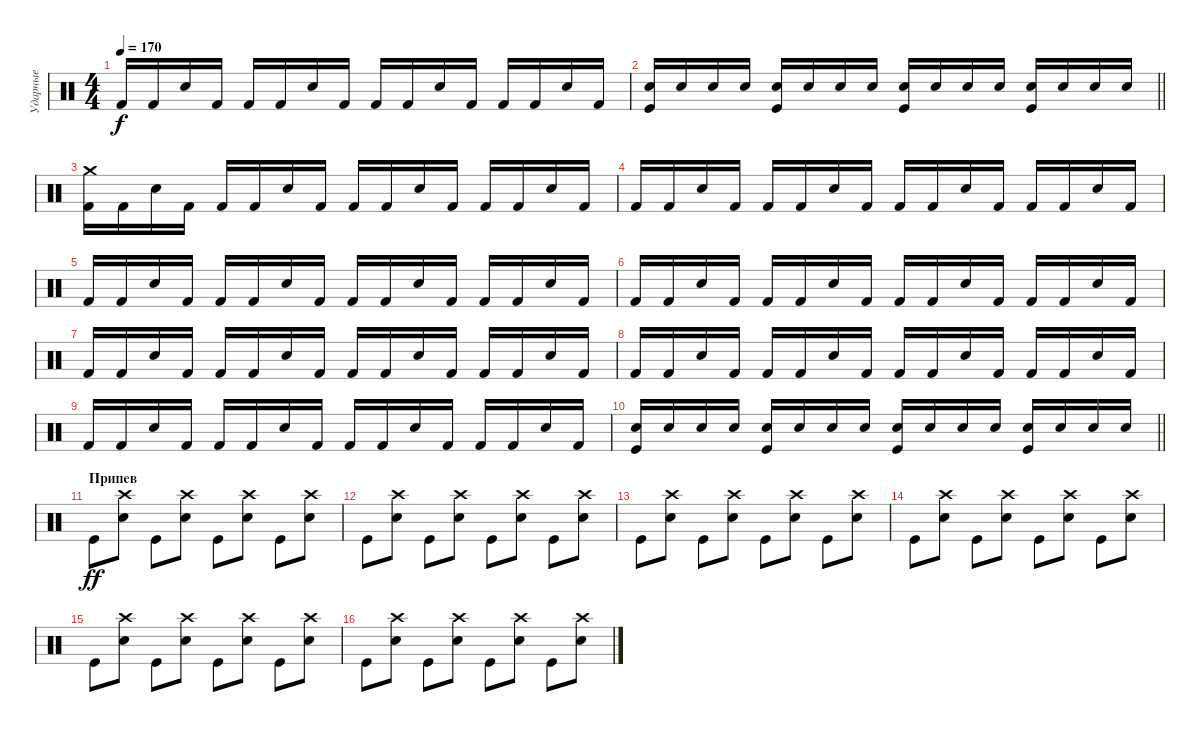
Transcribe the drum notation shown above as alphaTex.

\track ("Ударные" "Ударные") {instrument percussion}
\staff {score}
\articulation defaults
\ts (4 4)
\tempo 170
\clef neutral
\ks c "Kick (hit) 2".16{dy f} "Kick (hit) 2".16 "Snare (hit) 2".16 "Kick (hit) 2".16 "Kick (hit) 2".16 "Kick (hit) 2".16 "Snare (hit) 2".16 "Kick (hit) 2".16 "Kick (hit) 2".16 "Kick (hit) 2".16 "Snare (hit) 2".16 "Kick (hit) 2".16 "Kick (hit) 2".16 "Kick (hit) 2".16 "Snare (hit) 2".16 "Kick (hit) 2".16
|
\barLineRight lightlight
("Snare (hit) 2" "Kick (hit)").16 "Snare (hit) 2".16 "Snare (hit) 2".16 "Snare (hit) 2".16 ("Snare (hit) 2" "Kick (hit)").16 "Snare (hit) 2".16 "Snare (hit) 2".16 "Snare (hit) 2".16 ("Snare (hit) 2" "Kick (hit)").16 "Snare (hit) 2".16 "Snare (hit) 2".16 "Snare (hit) 2".16 ("Snare (hit) 2" "Kick (hit)").16 "Snare (hit) 2".16 "Snare (hit) 2".16 "Snare (hit) 2".16 |
\section ("" "")
("Crash medium (hit)" "Kick (hit) 2").16 "Kick (hit) 2".16 "Snare (hit) 2".16 "Kick (hit) 2".16 "Kick (hit) 2".16 "Kick (hit) 2".16 "Snare (hit) 2".16 "Kick (hit) 2".16 "Kick (hit) 2".16 "Kick (hit) 2".16 "Snare (hit) 2".16 "Kick (hit) 2".16 "Kick (hit) 2".16 "Kick (hit) 2".16 "Snare (hit) 2".16 "Kick (hit) 2".16 |
"Kick (hit) 2".16 "Kick (hit) 2".16 "Snare (hit) 2".16 "Kick (hit) 2".16 "Kick (hit) 2".16 "Kick (hit) 2".16 "Snare (hit) 2".16 "Kick (hit) 2".16 "Kick (hit) 2".16 "Kick (hit) 2".16 "Snare (hit) 2".16 "Kick (hit) 2".16 "Kick (hit) 2".16 "Kick (hit) 2".16 "Snare (hit) 2".16 "Kick (hit) 2".16 |
"Kick (hit) 2".16 "Kick (hit) 2".16 "Snare (hit) 2".16 "Kick (hit) 2".16 "Kick (hit) 2".16 "Kick (hit) 2".16 "Snare (hit) 2".16 "Kick (hit) 2".16 "Kick (hit) 2".16 "Kick (hit) 2".16 "Snare (hit) 2".16 "Kick (hit) 2".16 "Kick (hit) 2".16 "Kick (hit) 2".16 "Snare (hit) 2".16 "Kick (hit) 2".16 |
"Kick (hit) 2".16 "Kick (hit) 2".16 "Snare (hit) 2".16 "Kick (hit) 2".16 "Kick (hit) 2".16 "Kick (hit) 2".16 "Snare (hit) 2".16 "Kick (hit) 2".16 "Kick (hit) 2".16 "Kick (hit) 2".16 "Snare (hit) 2".16 "Kick (hit) 2".16 "Kick (hit) 2".16 "Kick (hit) 2".16 "Snare (hit) 2".16 "Kick (hit) 2".16 |
"Kick (hit) 2".16 "Kick (hit) 2".16 "Snare (hit) 2".16 "Kick (hit) 2".16 "Kick (hit) 2".16 "Kick (hit) 2".16 "Snare (hit) 2".16 "Kick (hit) 2".16 "Kick (hit) 2".16 "Kick (hit) 2".16 "Snare (hit) 2".16 "Kick (hit) 2".16 "Kick (hit) 2".16 "Kick (hit) 2".16 "Snare (hit) 2".16 "Kick (hit) 2".16 |
"Kick (hit) 2".16 "Kick (hit) 2".16 "Snare (hit) 2".16 "Kick (hit) 2".16 "Kick (hit) 2".16 "Kick (hit) 2".16 "Snare (hit) 2".16 "Kick (hit) 2".16 "Kick (hit) 2".16 "Kick (hit) 2".16 "Snare (hit) 2".16 "Kick (hit) 2".16 "Kick (hit) 2".16 "Kick (hit) 2".16 "Snare (hit) 2".16 "Kick (hit) 2".16 |
"Kick (hit) 2".16 "Kick (hit) 2".16 "Snare (hit) 2".16 "Kick (hit) 2".16 "Kick (hit) 2".16 "Kick (hit) 2".16 "Snare (hit) 2".16 "Kick (hit) 2".16 "Kick (hit) 2".16 "Kick (hit) 2".16 "Snare (hit) 2".16 "Kick (hit) 2".16 "Kick (hit) 2".16 "Kick (hit) 2".16 "Snare (hit) 2".16 "Kick (hit) 2".16 |
\barLineRight lightlight
("Snare (hit) 2" "Kick (hit)").16 "Snare (hit) 2".16 "Snare (hit) 2".16 "Snare (hit) 2".16 ("Snare (hit) 2" "Kick (hit)").16 "Snare (hit) 2".16 "Snare (hit) 2".16 "Snare (hit) 2".16 ("Snare (hit) 2" "Kick (hit)").16 "Snare (hit) 2".16 "Snare (hit) 2".16 "Snare (hit) 2".16 ("Snare (hit) 2" "Kick (hit)").16 "Snare (hit) 2".16 "Snare (hit) 2".16 "Snare (hit) 2".16 |
\section ("" "Припев")
"Kick (hit)".8{dy ff} ("Crash high (hit)" "Electric Snare (hit)").8 "Kick (hit)".8 ("Crash high (hit)" "Electric Snare (hit)").8 "Kick (hit)".8 ("Crash high (hit)" "Electric Snare (hit)").8 "Kick (hit)".8 ("Crash high (hit)" "Electric Snare (hit)").8 |
"Kick (hit)".8 ("Crash high (hit)" "Electric Snare (hit)").8 "Kick (hit)".8 ("Crash high (hit)" "Electric Snare (hit)").8 "Kick (hit)".8 ("Crash high (hit)" "Electric Snare (hit)").8 "Kick (hit)".8 ("Crash high (hit)" "Electric Snare (hit)").8 |
"Kick (hit)".8 ("Crash high (hit)" "Electric Snare (hit)").8 "Kick (hit)".8 ("Crash high (hit)" "Electric Snare (hit)").8 "Kick (hit)".8 ("Crash high (hit)" "Electric Snare (hit)").8 "Kick (hit)".8 ("Crash high (hit)" "Electric Snare (hit)").8 |
"Kick (hit)".8 ("Crash high (hit)" "Electric Snare (hit)").8 "Kick (hit)".8 ("Crash high (hit)" "Electric Snare (hit)").8 "Kick (hit)".8 ("Crash high (hit)" "Electric Snare (hit)").8 "Kick (hit)".8 ("Crash high (hit)" "Electric Snare (hit)").8 |
"Kick (hit)".8 ("Crash high (hit)" "Electric Snare (hit)").8 "Kick (hit)".8 ("Crash high (hit)" "Electric Snare (hit)").8 "Kick (hit)".8 ("Crash high (hit)" "Electric Snare (hit)").8 "Kick (hit)".8 ("Crash high (hit)" "Electric Snare (hit)").8 |
"Kick (hit)".8 ("Crash high (hit)" "Electric Snare (hit)").8 "Kick (hit)".8 ("Crash high (hit)" "Electric Snare (hit)").8 "Kick (hit)".8 ("Crash high (hit)" "Electric Snare (hit)").8 "Kick (hit)".8 ("Crash high (hit)" "Electric Snare (hit)").8
